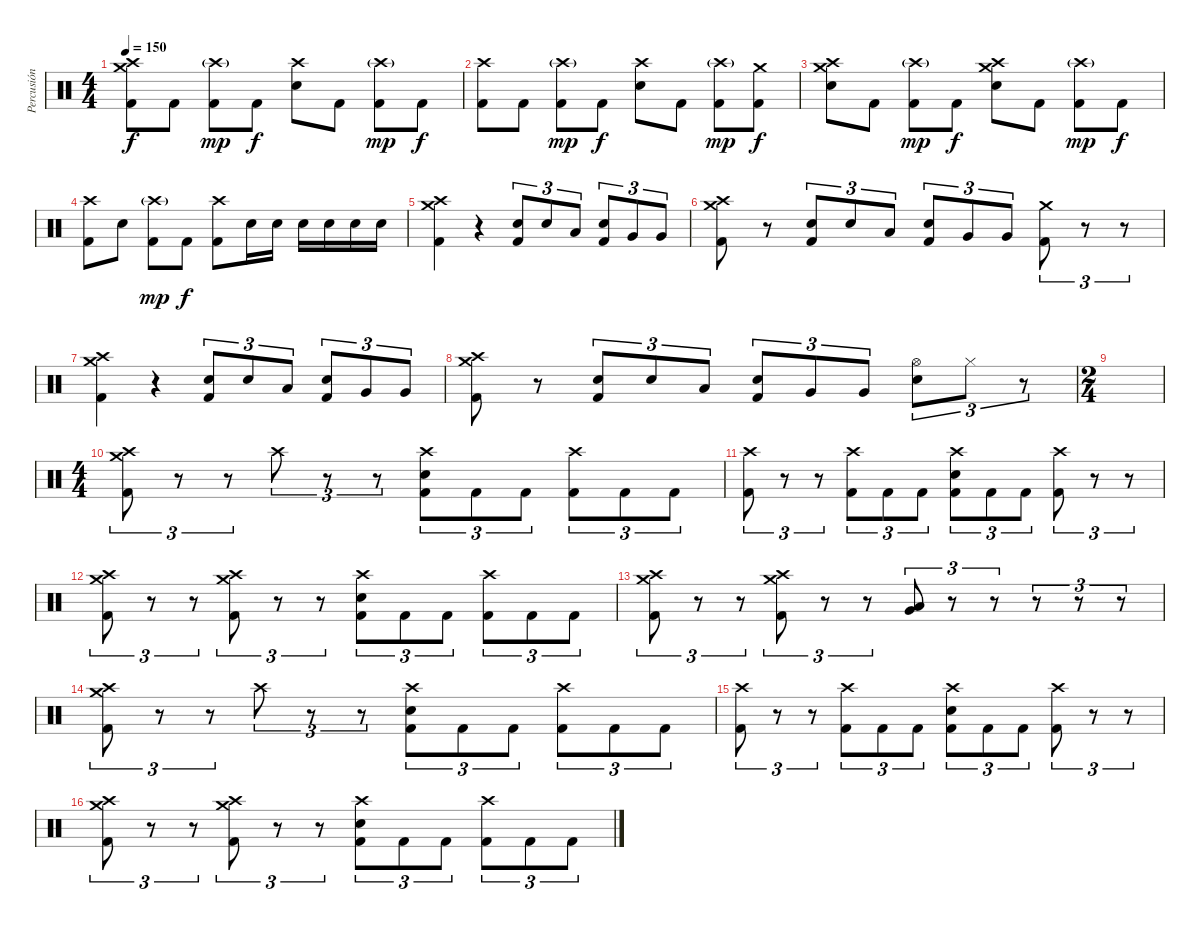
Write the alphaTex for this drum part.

\track ("Percusión" "Percusión") {instrument percussion}
\staff {score}
\articulation defaults
\ts (4 4)
\tempo 150
\clef neutral
\ks c
("Crash medium (hit)" "Crash high (hit)" "Kick (hit) 2").8{dy f} "Kick (hit) 2".8 ("Crash high (hit)"{g} "Kick (hit) 2").8{dy mp} "Kick (hit) 2".8{dy f} ("Crash high (hit)" "Electric Snare (hit)").8 "Kick (hit) 2".8 ("Crash high (hit)"{g} "Kick (hit) 2").8{dy mp} "Kick (hit) 2".8{dy f} |
("Crash high (hit)" "Kick (hit) 2").8 "Kick (hit) 2".8 ("Crash high (hit)"{g} "Kick (hit) 2").8{dy mp} "Kick (hit) 2".8{dy f} ("Crash high (hit)" "Electric Snare (hit)").8 "Kick (hit) 2".8 ("Crash high (hit)"{g} "Kick (hit) 2").8{dy mp} ("Crash medium (hit)" "Kick (hit) 2").8{dy f} |
("Crash medium (hit)" "Crash high (hit)" "Electric Snare (hit)").8 "Kick (hit) 2".8 ("Crash high (hit)"{g} "Kick (hit) 2").8{dy mp} "Kick (hit) 2".8{dy f} ("Crash medium (hit)" "Crash high (hit)" "Electric Snare (hit)").8 "Kick (hit) 2".8 ("Crash high (hit)"{g} "Kick (hit) 2").8{dy mp} "Kick (hit) 2".8{dy f} |
("Crash high (hit)" "Kick (hit) 2").8 "Electric Snare (hit)".8 ("Crash high (hit)"{g} "Kick (hit) 2").8{dy mp} "Kick (hit) 2".8{dy f} ("Crash high (hit)" "Kick (hit) 2").8 "Electric Snare (hit)".16 "Electric Snare (hit)".16 "Electric Snare (hit)".16 "Electric Snare (hit)".16 "Electric Snare (hit)".16 "Electric Snare (hit)".16 |
("Crash medium (hit)" "Crash high (hit)" "Kick (hit) 2").4 r.4 ("Electric Snare (hit)" "Kick (hit) 2").8{tu (3 2)} "Electric Snare (hit)".8{tu (3 2)} "Low Tom (hit)".8{tu (3 2)} ("Electric Snare (hit)" "Kick (hit) 2").8{tu (3 2)} "Very Low Tom (hit)".8{tu (3 2)} "Very Low Tom (hit)".8{tu (3 2)} |
("Crash medium (hit)" "Crash high (hit)" "Kick (hit) 2").8 r.8 ("Electric Snare (hit)" "Kick (hit) 2").8{tu (3 2)} "Electric Snare (hit)".8{tu (3 2)} "Low Tom (hit)".8{tu (3 2)} ("Electric Snare (hit)" "Kick (hit) 2").8{tu (3 2)} "Very Low Tom (hit)".8{tu (3 2)} "Very Low Tom (hit)".8{tu (3 2)} ("Crash medium (hit)" "Kick (hit) 2").8{tu (3 2)} r.8{tu (3 2)} r.8{tu (3 2)} |
("Crash medium (hit)" "Crash high (hit)" "Kick (hit) 2").4 r.4 ("Electric Snare (hit)" "Kick (hit) 2").8{tu (3 2)} "Electric Snare (hit)".8{tu (3 2)} "Low Tom (hit)".8{tu (3 2)} ("Electric Snare (hit)" "Kick (hit) 2").8{tu (3 2)} "Very Low Tom (hit)".8{tu (3 2)} "Very Low Tom (hit)".8{tu (3 2)} |
("Crash medium (hit)" "Crash high (hit)" "Kick (hit) 2").8 r.8 ("Electric Snare (hit)" "Kick (hit) 2").8{tu (3 2)} "Electric Snare (hit)".8{tu (3 2)} "Low Tom (hit)".8{tu (3 2)} ("Electric Snare (hit)" "Kick (hit) 2").8{tu (3 2)} "Very Low Tom (hit)".8{tu (3 2)} "Very Low Tom (hit)".8{tu (3 2)} ("Hi-Hat (open)" "Electric Snare (hit)").8{tu (3 2)} "Hi-Hat (closed)".8{tu (3 2)} r.8{tu (3 2)} |
\ts (2 4)
|
\ts (4 4)
("Crash medium (hit)" "Crash high (hit)" "Kick (hit) 2").8{tu (3 2)} r.8{tu (3 2)} r.8{tu (3 2)} "Crash high (hit)".8{tu (3 2)} r.8{tu (3 2)} r.8{tu (3 2)} ("Crash high (hit)" "Electric Snare (hit)" "Kick (hit) 2").8{tu (3 2)} "Kick (hit) 2".8{tu (3 2)} "Kick (hit) 2".8{tu (3 2)} ("Crash high (hit)" "Kick (hit) 2").8{tu (3 2)} "Kick (hit) 2".8{tu (3 2)} "Kick (hit) 2".8{tu (3 2)} |
("Crash high (hit)" "Kick (hit) 2").8{tu (3 2)} r.8{tu (3 2)} r.8{tu (3 2)} ("Crash high (hit)" "Kick (hit) 2").8{tu (3 2)} "Kick (hit) 2".8{tu (3 2)} "Kick (hit) 2".8{tu (3 2)} ("Crash high (hit)" "Electric Snare (hit)" "Kick (hit) 2").8{tu (3 2)} "Kick (hit) 2".8{tu (3 2)} "Kick (hit) 2".8{tu (3 2)} ("Crash high (hit)" "Kick (hit) 2").8{tu (3 2)} r.8{tu (3 2)} r.8{tu (3 2)} |
("Crash medium (hit)" "Crash high (hit)" "Kick (hit) 2").8{tu (3 2)} r.8{tu (3 2)} r.8{tu (3 2)} ("Crash medium (hit)" "Crash high (hit)" "Kick (hit) 2").8{tu (3 2)} r.8{tu (3 2)} r.8{tu (3 2)} ("Crash high (hit)" "Electric Snare (hit)" "Kick (hit) 2").8{tu (3 2)} "Kick (hit) 2".8{tu (3 2)} "Kick (hit) 2".8{tu (3 2)} ("Crash high (hit)" "Kick (hit) 2").8{tu (3 2)} "Kick (hit) 2".8{tu (3 2)} "Kick (hit) 2".8{tu (3 2)} |
("Crash medium (hit)" "Crash high (hit)" "Kick (hit) 2").8{tu (3 2)} r.8{tu (3 2)} r.8{tu (3 2)} ("Crash medium (hit)" "Crash high (hit)" "Kick (hit) 2").8{tu (3 2)} r.8{tu (3 2)} r.8{tu (3 2)} ("Very Low Tom (hit)" "Low Tom (hit)").8{tu (3 2)} r.8{tu (3 2)} r.8{tu (3 2)} r.8{tu (3 2)} r.8{tu (3 2)} r.8{tu (3 2)} |
("Crash medium (hit)" "Crash high (hit)" "Kick (hit) 2").8{tu (3 2)} r.8{tu (3 2)} r.8{tu (3 2)} "Crash high (hit)".8{tu (3 2)} r.8{tu (3 2)} r.8{tu (3 2)} ("Crash high (hit)" "Electric Snare (hit)" "Kick (hit) 2").8{tu (3 2)} "Kick (hit) 2".8{tu (3 2)} "Kick (hit) 2".8{tu (3 2)} ("Crash high (hit)" "Kick (hit) 2").8{tu (3 2)} "Kick (hit) 2".8{tu (3 2)} "Kick (hit) 2".8{tu (3 2)} |
("Crash high (hit)" "Kick (hit) 2").8{tu (3 2)} r.8{tu (3 2)} r.8{tu (3 2)} ("Crash high (hit)" "Kick (hit) 2").8{tu (3 2)} "Kick (hit) 2".8{tu (3 2)} "Kick (hit) 2".8{tu (3 2)} ("Crash high (hit)" "Electric Snare (hit)" "Kick (hit) 2").8{tu (3 2)} "Kick (hit) 2".8{tu (3 2)} "Kick (hit) 2".8{tu (3 2)} ("Crash high (hit)" "Kick (hit) 2").8{tu (3 2)} r.8{tu (3 2)} r.8{tu (3 2)} |
("Crash medium (hit)" "Crash high (hit)" "Kick (hit) 2").8{tu (3 2)} r.8{tu (3 2)} r.8{tu (3 2)} ("Crash medium (hit)" "Crash high (hit)" "Kick (hit) 2").8{tu (3 2)} r.8{tu (3 2)} r.8{tu (3 2)} ("Crash high (hit)" "Electric Snare (hit)" "Kick (hit) 2").8{tu (3 2)} "Kick (hit) 2".8{tu (3 2)} "Kick (hit) 2".8{tu (3 2)} ("Crash high (hit)" "Kick (hit) 2").8{tu (3 2)} "Kick (hit) 2".8{tu (3 2)} "Kick (hit) 2".8{tu (3 2)}
